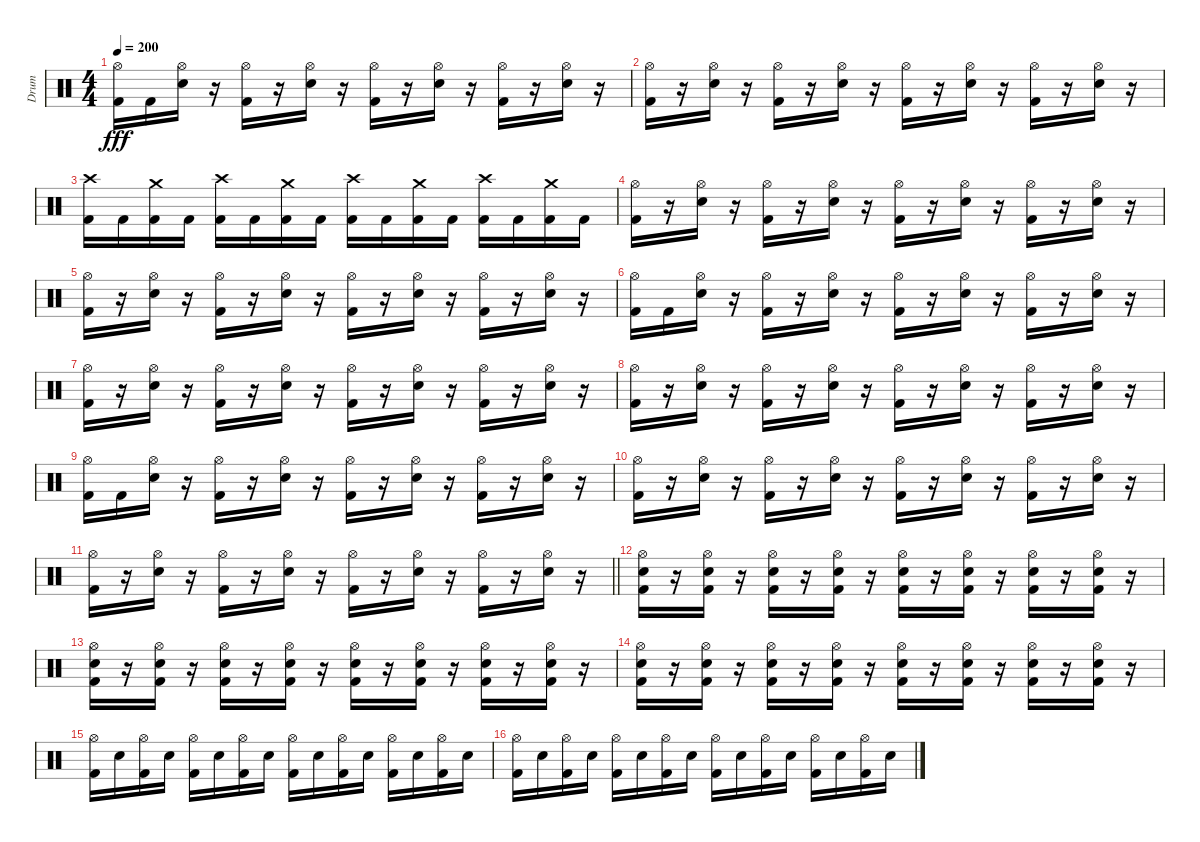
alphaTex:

\track ("Drum" "Drum") {instrument percussion}
\staff {score}
\articulation defaults
\ts (4 4)
\tempo 200
\clef neutral
\ks c
("Hi-Hat (open)" "Kick (hit) 2").16{dy fff} "Kick (hit) 2".16 ("Hi-Hat (open)" "Electric Snare (hit)").16 r.16 ("Hi-Hat (open)" "Kick (hit) 2").16 r.16 ("Hi-Hat (open)" "Electric Snare (hit)").16 r.16 ("Hi-Hat (open)" "Kick (hit) 2").16 r.16 ("Hi-Hat (open)" "Electric Snare (hit)").16 r.16 ("Hi-Hat (open)" "Kick (hit) 2").16 r.16 ("Hi-Hat (open)" "Electric Snare (hit)").16 r.16 |
("Hi-Hat (open)" "Kick (hit) 2").16 r.16 ("Hi-Hat (open)" "Electric Snare (hit)").16 r.16 ("Hi-Hat (open)" "Kick (hit) 2").16 r.16 ("Hi-Hat (open)" "Electric Snare (hit)").16 r.16 ("Hi-Hat (open)" "Kick (hit) 2").16 r.16 ("Hi-Hat (open)" "Electric Snare (hit)").16 r.16 ("Hi-Hat (open)" "Kick (hit) 2").16 r.16 ("Hi-Hat (open)" "Electric Snare (hit)").16 r.16 |
("Crash high (hit)" "Kick (hit) 2").16 "Kick (hit) 2".16 ("Crash medium (hit)" "Kick (hit) 2").16 "Kick (hit) 2".16 ("Crash high (hit)" "Kick (hit) 2").16 "Kick (hit) 2".16 ("Crash medium (hit)" "Kick (hit) 2").16 "Kick (hit) 2".16 ("Crash high (hit)" "Kick (hit) 2").16 "Kick (hit) 2".16 ("Crash medium (hit)" "Kick (hit) 2").16 "Kick (hit) 2".16 ("Crash high (hit)" "Kick (hit) 2").16 "Kick (hit) 2".16 ("Crash medium (hit)" "Kick (hit) 2").16 "Kick (hit) 2".16 |
("Hi-Hat (open)" "Kick (hit) 2").16 r.16 ("Hi-Hat (open)" "Electric Snare (hit)").16 r.16 ("Hi-Hat (open)" "Kick (hit) 2").16 r.16 ("Hi-Hat (open)" "Electric Snare (hit)").16 r.16 ("Hi-Hat (open)" "Kick (hit) 2").16 r.16 ("Hi-Hat (open)" "Electric Snare (hit)").16 r.16 ("Hi-Hat (open)" "Kick (hit) 2").16 r.16 ("Hi-Hat (open)" "Electric Snare (hit)").16 r.16 |
("Hi-Hat (open)" "Kick (hit) 2").16 r.16 ("Hi-Hat (open)" "Electric Snare (hit)").16 r.16 ("Hi-Hat (open)" "Kick (hit) 2").16 r.16 ("Hi-Hat (open)" "Electric Snare (hit)").16 r.16 ("Hi-Hat (open)" "Kick (hit) 2").16 r.16 ("Hi-Hat (open)" "Electric Snare (hit)").16 r.16 ("Hi-Hat (open)" "Kick (hit) 2").16 r.16 ("Hi-Hat (open)" "Electric Snare (hit)").16 r.16 |
("Hi-Hat (open)" "Kick (hit) 2").16 "Kick (hit) 2".16 ("Hi-Hat (open)" "Electric Snare (hit)").16 r.16 ("Hi-Hat (open)" "Kick (hit) 2").16 r.16 ("Hi-Hat (open)" "Electric Snare (hit)").16 r.16 ("Hi-Hat (open)" "Kick (hit) 2").16 r.16 ("Hi-Hat (open)" "Electric Snare (hit)").16 r.16 ("Hi-Hat (open)" "Kick (hit) 2").16 r.16 ("Hi-Hat (open)" "Electric Snare (hit)").16 r.16 |
("Hi-Hat (open)" "Kick (hit) 2").16 r.16 ("Hi-Hat (open)" "Electric Snare (hit)").16 r.16 ("Hi-Hat (open)" "Kick (hit) 2").16 r.16 ("Hi-Hat (open)" "Electric Snare (hit)").16 r.16 ("Hi-Hat (open)" "Kick (hit) 2").16 r.16 ("Hi-Hat (open)" "Electric Snare (hit)").16 r.16 ("Hi-Hat (open)" "Kick (hit) 2").16 r.16 ("Hi-Hat (open)" "Electric Snare (hit)").16 r.16 |
("Hi-Hat (open)" "Kick (hit) 2").16 r.16 ("Hi-Hat (open)" "Electric Snare (hit)").16 r.16 ("Hi-Hat (open)" "Kick (hit) 2").16 r.16 ("Hi-Hat (open)" "Electric Snare (hit)").16 r.16 ("Hi-Hat (open)" "Kick (hit) 2").16 r.16 ("Hi-Hat (open)" "Electric Snare (hit)").16 r.16 ("Hi-Hat (open)" "Kick (hit) 2").16 r.16 ("Hi-Hat (open)" "Electric Snare (hit)").16 r.16 |
("Hi-Hat (open)" "Kick (hit) 2").16 "Kick (hit) 2".16 ("Hi-Hat (open)" "Electric Snare (hit)").16 r.16 ("Hi-Hat (open)" "Kick (hit) 2").16 r.16 ("Hi-Hat (open)" "Electric Snare (hit)").16 r.16 ("Hi-Hat (open)" "Kick (hit) 2").16 r.16 ("Hi-Hat (open)" "Electric Snare (hit)").16 r.16 ("Hi-Hat (open)" "Kick (hit) 2").16 r.16 ("Hi-Hat (open)" "Electric Snare (hit)").16 r.16 |
("Hi-Hat (open)" "Kick (hit) 2").16 r.16 ("Hi-Hat (open)" "Electric Snare (hit)").16 r.16 ("Hi-Hat (open)" "Kick (hit) 2").16 r.16 ("Hi-Hat (open)" "Electric Snare (hit)").16 r.16 ("Hi-Hat (open)" "Kick (hit) 2").16 r.16 ("Hi-Hat (open)" "Electric Snare (hit)").16 r.16 ("Hi-Hat (open)" "Kick (hit) 2").16 r.16 ("Hi-Hat (open)" "Electric Snare (hit)").16 r.16 |
\barLineRight lightlight
("Hi-Hat (open)" "Kick (hit) 2").16 r.16 ("Hi-Hat (open)" "Electric Snare (hit)").16 r.16 ("Hi-Hat (open)" "Kick (hit) 2").16 r.16 ("Hi-Hat (open)" "Electric Snare (hit)").16 r.16 ("Hi-Hat (open)" "Kick (hit) 2").16 r.16 ("Hi-Hat (open)" "Electric Snare (hit)").16 r.16 ("Hi-Hat (open)" "Kick (hit) 2").16 r.16 ("Hi-Hat (open)" "Electric Snare (hit)").16 r.16 |
\section ("" "")
("Hi-Hat (open)" "Electric Snare (hit)" "Kick (hit) 2").16 r.16 ("Hi-Hat (open)" "Electric Snare (hit)" "Kick (hit) 2").16 r.16 ("Hi-Hat (open)" "Electric Snare (hit)" "Kick (hit) 2").16 r.16 ("Hi-Hat (open)" "Electric Snare (hit)" "Kick (hit) 2").16 r.16 ("Hi-Hat (open)" "Electric Snare (hit)" "Kick (hit) 2").16 r.16 ("Hi-Hat (open)" "Electric Snare (hit)" "Kick (hit) 2").16 r.16 ("Hi-Hat (open)" "Electric Snare (hit)" "Kick (hit) 2").16 r.16 ("Hi-Hat (open)" "Electric Snare (hit)" "Kick (hit) 2").16 r.16 |
("Hi-Hat (open)" "Electric Snare (hit)" "Kick (hit) 2").16 r.16 ("Hi-Hat (open)" "Electric Snare (hit)" "Kick (hit) 2").16 r.16 ("Hi-Hat (open)" "Electric Snare (hit)" "Kick (hit) 2").16 r.16 ("Hi-Hat (open)" "Electric Snare (hit)" "Kick (hit) 2").16 r.16 ("Hi-Hat (open)" "Electric Snare (hit)" "Kick (hit) 2").16 r.16 ("Hi-Hat (open)" "Electric Snare (hit)" "Kick (hit) 2").16 r.16 ("Hi-Hat (open)" "Electric Snare (hit)" "Kick (hit) 2").16 r.16 ("Hi-Hat (open)" "Electric Snare (hit)" "Kick (hit) 2").16 r.16 |
("Hi-Hat (open)" "Electric Snare (hit)" "Kick (hit) 2").16 r.16 ("Hi-Hat (open)" "Electric Snare (hit)" "Kick (hit) 2").16 r.16 ("Hi-Hat (open)" "Electric Snare (hit)" "Kick (hit) 2").16 r.16 ("Hi-Hat (open)" "Electric Snare (hit)" "Kick (hit) 2").16 r.16 ("Hi-Hat (open)" "Electric Snare (hit)" "Kick (hit) 2").16 r.16 ("Hi-Hat (open)" "Electric Snare (hit)" "Kick (hit) 2").16 r.16 ("Hi-Hat (open)" "Electric Snare (hit)" "Kick (hit) 2").16 r.16 ("Hi-Hat (open)" "Electric Snare (hit)" "Kick (hit) 2").16 r.16 |
("Hi-Hat (open)" "Kick (hit) 2").16 "Electric Snare (hit)".16 ("Hi-Hat (open)" "Kick (hit) 2").16 "Electric Snare (hit)".16 ("Hi-Hat (open)" "Kick (hit) 2").16 "Electric Snare (hit)".16 ("Hi-Hat (open)" "Kick (hit) 2").16 "Electric Snare (hit)".16 ("Hi-Hat (open)" "Kick (hit) 2").16 "Electric Snare (hit)".16 ("Hi-Hat (open)" "Kick (hit) 2").16 "Electric Snare (hit)".16 ("Hi-Hat (open)" "Kick (hit) 2").16 "Electric Snare (hit)".16 ("Hi-Hat (open)" "Kick (hit) 2").16 "Electric Snare (hit)".16 |
("Hi-Hat (open)" "Kick (hit) 2").16 "Electric Snare (hit)".16 ("Hi-Hat (open)" "Kick (hit) 2").16 "Electric Snare (hit)".16 ("Hi-Hat (open)" "Kick (hit) 2").16 "Electric Snare (hit)".16 ("Hi-Hat (open)" "Kick (hit) 2").16 "Electric Snare (hit)".16 ("Hi-Hat (open)" "Kick (hit) 2").16 "Electric Snare (hit)".16 ("Hi-Hat (open)" "Kick (hit) 2").16 "Electric Snare (hit)".16 ("Hi-Hat (open)" "Kick (hit) 2").16 "Electric Snare (hit)".16 ("Hi-Hat (open)" "Kick (hit) 2").16 "Electric Snare (hit)".16
